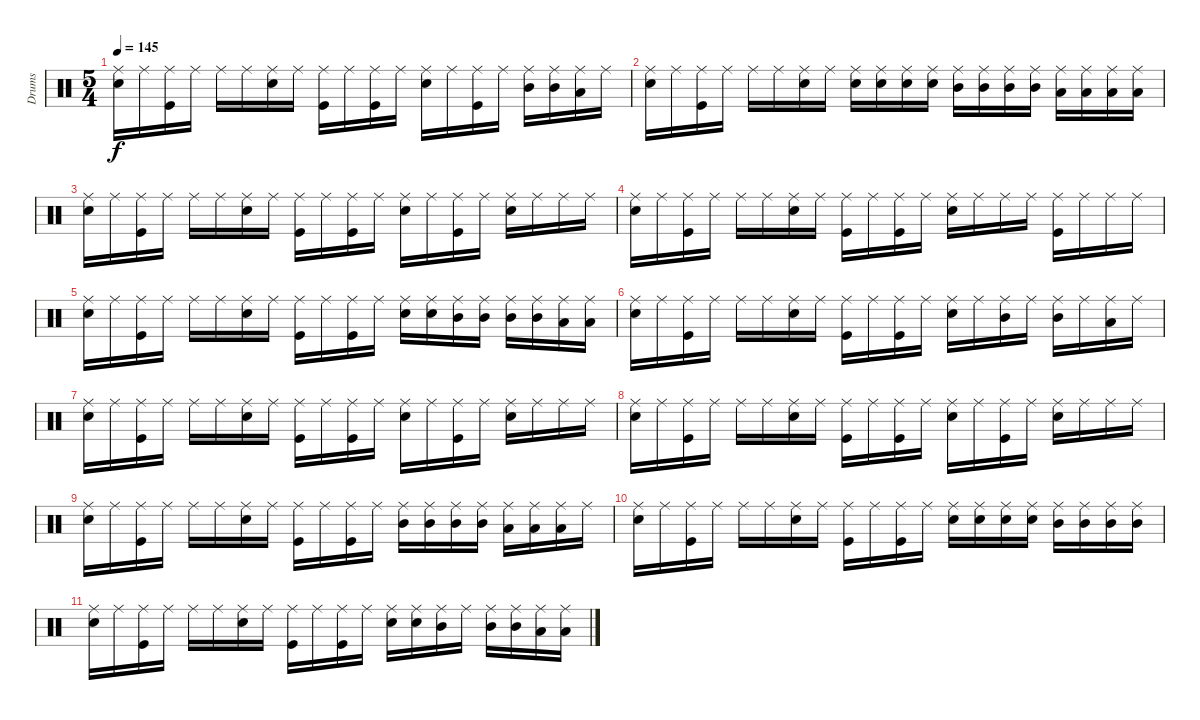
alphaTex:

\track ("Drums" "Drums") {instrument percussion}
\staff {score}
\articulation defaults
\ts (5 4)
\tempo 145
\clef neutral
\ks c
("Ride (middle)" "Snare (hit) 2").16{dy f} "Ride (middle)".16 ("Ride (middle)" "Kick (hit)").16 "Ride (middle)".16 "Ride (middle)".16 "Ride (middle)".16 ("Ride (middle)" "Snare (hit) 2").16 "Ride (middle)".16 ("Ride (middle)" "Kick (hit)").16 "Ride (middle)".16 ("Ride (middle)" "Kick (hit)").16 "Ride (middle)".16 ("Ride (middle)" "Snare (hit) 2").16 "Ride (middle)".16 ("Ride (middle)" "Kick (hit)").16 "Ride (middle)".16 ("Ride (middle)" "Mid Tom (hit)").16 ("Ride (middle)" "Mid Tom (hit)").16 ("Ride (middle)" "Low Tom (hit)").16 "Ride (middle)".16 |
("Ride (middle)" "Snare (hit) 2").16 "Ride (middle)".16 ("Ride (middle)" "Kick (hit)").16 "Ride (middle)".16 "Ride (middle)".16 "Ride (middle)".16 ("Ride (middle)" "Snare (hit) 2").16 "Ride (middle)".16 ("Ride (middle)" "Snare (hit) 2").16 ("Ride (middle)" "Snare (hit) 2").16 ("Ride (middle)" "Snare (hit) 2").16 ("Ride (middle)" "Snare (hit) 2").16 ("Ride (middle)" "Mid Tom (hit)").16 ("Ride (middle)" "Mid Tom (hit)").16 ("Ride (middle)" "Mid Tom (hit)").16 ("Ride (middle)" "Mid Tom (hit)").16 ("Ride (middle)" "Low Tom (hit)").16 ("Ride (middle)" "Low Tom (hit)").16 ("Ride (middle)" "Low Tom (hit)").16 ("Ride (middle)" "Low Tom (hit)").16 |
("Ride (middle)" "Snare (hit) 2").16 "Ride (middle)".16 ("Ride (middle)" "Kick (hit)").16 "Ride (middle)".16 "Ride (middle)".16 "Ride (middle)".16 ("Ride (middle)" "Snare (hit) 2").16 "Ride (middle)".16 ("Ride (middle)" "Kick (hit)").16 "Ride (middle)".16 ("Ride (middle)" "Kick (hit)").16 "Ride (middle)".16 ("Ride (middle)" "Snare (hit) 2").16 "Ride (middle)".16 ("Ride (middle)" "Kick (hit)").16 "Ride (middle)".16 ("Ride (middle)" "Snare (hit) 2").16 "Ride (middle)".16 "Ride (middle)".16 "Ride (middle)".16 |
("Ride (middle)" "Snare (hit) 2").16 "Ride (middle)".16 ("Ride (middle)" "Kick (hit)").16 "Ride (middle)".16 "Ride (middle)".16 "Ride (middle)".16 ("Ride (middle)" "Snare (hit) 2").16 "Ride (middle)".16 ("Ride (middle)" "Kick (hit)").16 "Ride (middle)".16 ("Ride (middle)" "Kick (hit)").16 "Ride (middle)".16 ("Ride (middle)" "Snare (hit) 2").16 "Ride (middle)".16 "Ride (middle)".16 "Ride (middle)".16 ("Ride (middle)" "Kick (hit)").16 "Ride (middle)".16 "Ride (middle)".16 "Ride (middle)".16 |
("Ride (middle)" "Snare (hit) 2").16 "Ride (middle)".16 ("Ride (middle)" "Kick (hit)").16 "Ride (middle)".16 "Ride (middle)".16 "Ride (middle)".16 ("Ride (middle)" "Snare (hit) 2").16 "Ride (middle)".16 ("Ride (middle)" "Kick (hit)").16 "Ride (middle)".16 ("Ride (middle)" "Kick (hit)").16 "Ride (middle)".16 ("Ride (middle)" "Snare (hit) 2").16 ("Ride (middle)" "Snare (hit) 2").16 ("Ride (middle)" "Mid Tom (hit)").16 ("Ride (middle)" "Mid Tom (hit)").16 ("Ride (middle)" "Mid Tom (hit)").16 ("Ride (middle)" "Mid Tom (hit)").16 ("Ride (middle)" "Low Tom (hit)").16 ("Ride (middle)" "Low Tom (hit)").16 |
("Ride (middle)" "Snare (hit) 2").16 "Ride (middle)".16 ("Ride (middle)" "Kick (hit)").16 "Ride (middle)".16 "Ride (middle)".16 "Ride (middle)".16 ("Ride (middle)" "Snare (hit) 2").16 "Ride (middle)".16 ("Ride (middle)" "Kick (hit)").16 "Ride (middle)".16 ("Ride (middle)" "Kick (hit)").16 "Ride (middle)".16 ("Ride (middle)" "Snare (hit) 2").16 "Ride (middle)".16 ("Ride (middle)" "Mid Tom (hit)").16 "Ride (middle)".16 ("Ride (middle)" "Mid Tom (hit)").16 "Ride (middle)".16 ("Ride (middle)" "Low Tom (hit)").16 "Ride (middle)".16 |
("Ride (middle)" "Snare (hit) 2").16{volume 0} "Ride (middle)".16 ("Ride (middle)" "Kick (hit)").16 "Ride (middle)".16 "Ride (middle)".16 "Ride (middle)".16 ("Ride (middle)" "Snare (hit) 2").16 "Ride (middle)".16 ("Ride (middle)" "Kick (hit)").16 "Ride (middle)".16 ("Ride (middle)" "Kick (hit)").16 "Ride (middle)".16 ("Ride (middle)" "Snare (hit) 2").16 "Ride (middle)".16 ("Ride (middle)" "Kick (hit)").16 "Ride (middle)".16 ("Ride (middle)" "Snare (hit) 2").16 "Ride (middle)".16 "Ride (middle)".16 "Ride (middle)".16 |
("Ride (middle)" "Snare (hit) 2").16 "Ride (middle)".16 ("Ride (middle)" "Kick (hit)").16 "Ride (middle)".16 "Ride (middle)".16 "Ride (middle)".16 ("Ride (middle)" "Snare (hit) 2").16 "Ride (middle)".16 ("Ride (middle)" "Kick (hit)").16 "Ride (middle)".16 ("Ride (middle)" "Kick (hit)").16 "Ride (middle)".16 ("Ride (middle)" "Snare (hit) 2").16 "Ride (middle)".16 ("Ride (middle)" "Kick (hit)").16 "Ride (middle)".16 ("Ride (middle)" "Snare (hit) 2").16 "Ride (middle)".16 "Ride (middle)".16 "Ride (middle)".16 |
("Ride (middle)" "Snare (hit) 2").16 "Ride (middle)".16 ("Ride (middle)" "Kick (hit)").16 "Ride (middle)".16 "Ride (middle)".16 "Ride (middle)".16 ("Ride (middle)" "Snare (hit) 2").16 "Ride (middle)".16 ("Ride (middle)" "Kick (hit)").16 "Ride (middle)".16 ("Ride (middle)" "Kick (hit)").16 "Ride (middle)".16 ("Ride (middle)" "Mid Tom (hit)").16 ("Ride (middle)" "Mid Tom (hit)").16 ("Ride (middle)" "Mid Tom (hit)").16 ("Ride (middle)" "Mid Tom (hit)").16 ("Ride (middle)" "Low Tom (hit)").16 ("Ride (middle)" "Low Tom (hit)").16 ("Ride (middle)" "Low Tom (hit)").16 "Ride (middle)".16 |
("Ride (middle)" "Snare (hit) 2").16 "Ride (middle)".16 ("Ride (middle)" "Kick (hit)").16 "Ride (middle)".16 "Ride (middle)".16 "Ride (middle)".16 ("Ride (middle)" "Snare (hit) 2").16 "Ride (middle)".16 ("Ride (middle)" "Kick (hit)").16 "Ride (middle)".16 ("Ride (middle)" "Kick (hit)").16 "Ride (middle)".16 ("Ride (middle)" "Snare (hit) 2").16 ("Ride (middle)" "Snare (hit) 2").16 ("Ride (middle)" "Snare (hit) 2").16 ("Ride (middle)" "Snare (hit) 2").16 ("Ride (middle)" "Mid Tom (hit)").16 ("Ride (middle)" "Mid Tom (hit)").16 ("Ride (middle)" "Mid Tom (hit)").16 ("Ride (middle)" "Mid Tom (hit)").16 |
("Ride (middle)" "Snare (hit) 2").16 "Ride (middle)".16 ("Ride (middle)" "Kick (hit)").16 "Ride (middle)".16 "Ride (middle)".16 "Ride (middle)".16 ("Ride (middle)" "Snare (hit) 2").16 "Ride (middle)".16 ("Ride (middle)" "Kick (hit)").16 "Ride (middle)".16 ("Ride (middle)" "Kick (hit)").16 "Ride (middle)".16 ("Ride (middle)" "Snare (hit) 2").16 ("Ride (middle)" "Snare (hit) 2").16 ("Ride (middle)" "Mid Tom (hit)").16 "Ride (middle)".16 ("Ride (middle)" "Mid Tom (hit)").16 ("Ride (middle)" "Mid Tom (hit)").16 ("Ride (middle)" "Low Tom (hit)").16 ("Ride (middle)" "Low Tom (hit)").16
